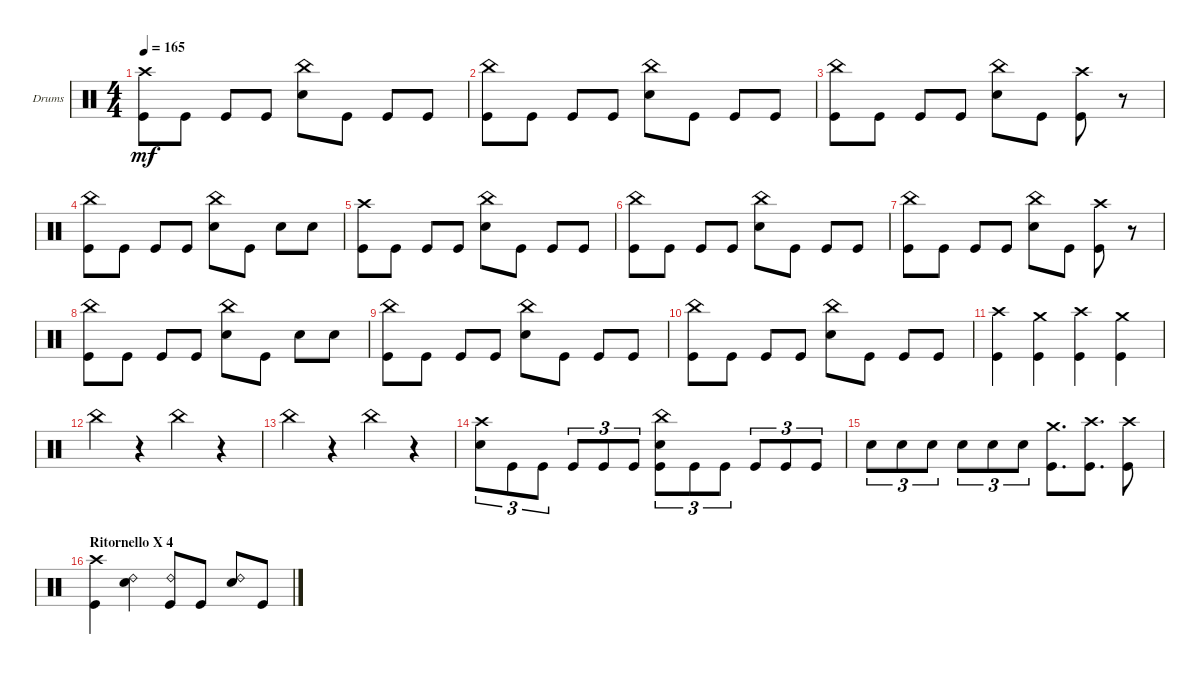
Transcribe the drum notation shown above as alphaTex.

\bracketExtendMode groupsimilarinstruments
\firstSystemTrackNameOrientation horizontal
\otherSystemsTrackNameOrientation horizontal
\track ("Drums" "Drums") {solo instrument percussion}
\staff {score}
\articulation defaults
\ts (4 4)
\tempo 165
\clef neutral
\ks c
("Kick (hit)" "Crash high (hit)").8{dy mf} "Kick (hit)".8 "Kick (hit)".8 "Kick (hit)".8 ("Snare (hit) 2" "China (hit)").8 "Kick (hit)".8 "Kick (hit)".8 "Kick (hit)".8 |
("Kick (hit)" "China (hit)").8 "Kick (hit)".8 "Kick (hit)".8 "Kick (hit)".8 ("Snare (hit) 2" "China (hit)").8 "Kick (hit)".8 "Kick (hit)".8 "Kick (hit)".8 |
("Kick (hit)" "China (hit)").8 "Kick (hit)".8 "Kick (hit)".8 "Kick (hit)".8 ("Snare (hit) 2" "China (hit)").8 "Kick (hit)".8 ("Kick (hit)" "Crash high (hit)").8 r.8 |
("Kick (hit)" "China (hit)").8 "Kick (hit)".8 "Kick (hit)".8 "Kick (hit)".8 ("Snare (hit) 2" "China (hit)").8 "Kick (hit)".8 "Snare (hit) 2".8 "Snare (hit) 2".8 |
("Kick (hit)" "Crash high (hit)").8 "Kick (hit)".8 "Kick (hit)".8 "Kick (hit)".8 ("Snare (hit) 2" "China (hit)").8 "Kick (hit)".8 "Kick (hit)".8 "Kick (hit)".8 |
("Kick (hit)" "China (hit)").8 "Kick (hit)".8 "Kick (hit)".8 "Kick (hit)".8 ("Snare (hit) 2" "China (hit)").8 "Kick (hit)".8 "Kick (hit)".8 "Kick (hit)".8 |
("Kick (hit)" "China (hit)").8 "Kick (hit)".8 "Kick (hit)".8 "Kick (hit)".8 ("Snare (hit) 2" "China (hit)").8 "Kick (hit)".8 ("Kick (hit)" "Crash high (hit)").8 r.8 |
("Kick (hit)" "China (hit)").8 "Kick (hit)".8 "Kick (hit)".8 "Kick (hit)".8 ("Snare (hit) 2" "China (hit)").8 "Kick (hit)".8 "Snare (hit) 2".8 "Snare (hit) 2".8 |
("Kick (hit)" "China (hit)").8 "Kick (hit)".8 "Kick (hit)".8 "Kick (hit)".8 ("Snare (hit) 2" "China (hit)").8 "Kick (hit)".8 "Kick (hit)".8 "Kick (hit)".8 |
("Kick (hit)" "China (hit)").8 "Kick (hit)".8 "Kick (hit)".8 "Kick (hit)".8 ("Snare (hit) 2" "China (hit)").8 "Kick (hit)".8 "Kick (hit)".8 "Kick (hit)".8 |
("Kick (hit)" "Crash high (hit)").4 ("Kick (hit)" "Crash medium (hit)").4 ("Kick (hit)" "Crash high (hit)").4 ("Kick (hit)" "Crash medium (hit)").4 |
"China (hit)".4 r.4 "China (hit)".4 r.4 |
"China (hit)".4 r.4 "China (hit)".4 r.4 |
("Snare (hit) 2" "Crash high (hit)").8{tu (3 2)} "Kick (hit)".8{tu (3 2)} "Kick (hit)".8{tu (3 2)} "Kick (hit)".8{tu (3 2)} "Kick (hit)".8{tu (3 2)} "Kick (hit)".8{tu (3 2)} ("Kick (hit)" "Snare (hit) 2" "China (hit)").8{tu (3 2)} "Kick (hit)".8{tu (3 2)} "Kick (hit)".8{tu (3 2)} "Kick (hit)".8{tu (3 2)} "Kick (hit)".8{tu (3 2)} "Kick (hit)".8{tu (3 2)} |
\section ("" "")
"Snare (hit) 2".8{tu (3 2)} "Snare (hit) 2".8{tu (3 2)} "Snare (hit) 2".8{tu (3 2)} "Snare (hit) 2".8{tu (3 2)} "Snare (hit) 2".8{tu (3 2)} "Snare (hit) 2".8{tu (3 2)} ("Kick (hit)" "Crash medium (hit)").8{d} ("Kick (hit)" "Crash high (hit)").8{d} ("Kick (hit)" "Crash high (hit)").8 |
\section ("" "Ritornello X 4")
("Kick (hit)" "Crash high (hit)").4 ("Snare (hit) 2" "Ride (bell) 2").4 ("Kick (hit)" "Ride (bell) 2").8 "Kick (hit)".8 ("Snare (hit) 2" "Ride (bell) 2").8 "Kick (hit)".8
